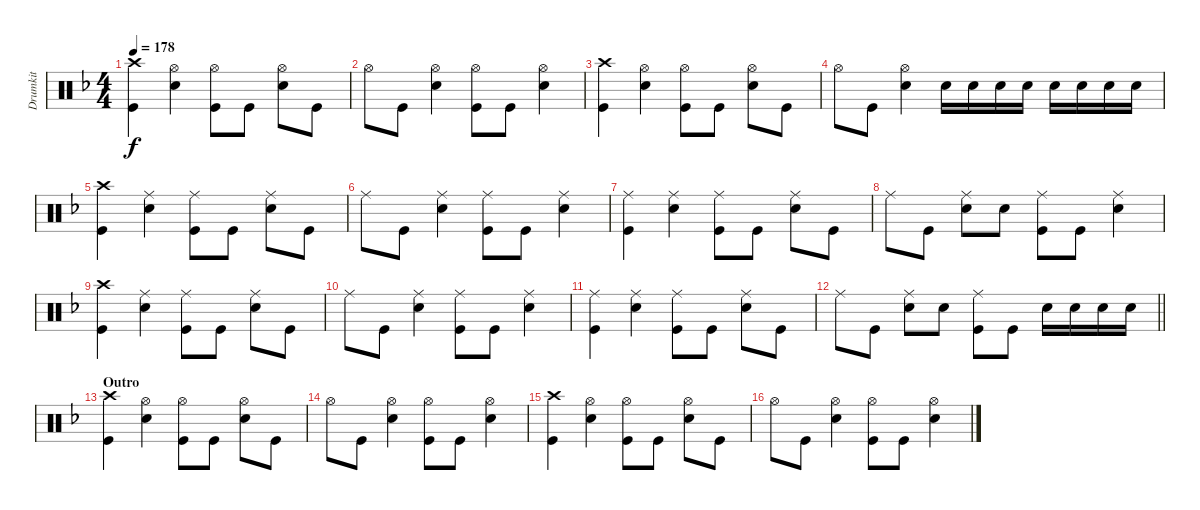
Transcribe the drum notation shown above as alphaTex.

\track ("Drumkit" "Drumkit") {instrument percussion}
\staff {score}
\articulation defaults
\ts (4 4)
\tempo 178
\clef neutral
\ks f
("Crash high (hit)" "Kick (hit)").4{dy f} ("Hi-Hat (open)" "Snare (hit) 2").4 ("Hi-Hat (open)" "Kick (hit)").8 "Kick (hit)".8 ("Hi-Hat (open)" "Snare (hit) 2").8 "Kick (hit)".8 |
"Hi-Hat (open)".8 "Kick (hit)".8 ("Hi-Hat (open)" "Snare (hit) 2").4 ("Hi-Hat (open)" "Kick (hit)").8 "Kick (hit)".8 ("Hi-Hat (open)" "Snare (hit) 2").4 |
("Crash high (hit)" "Kick (hit)").4 ("Hi-Hat (open)" "Snare (hit) 2").4 ("Hi-Hat (open)" "Kick (hit)").8 "Kick (hit)".8 ("Hi-Hat (open)" "Snare (hit) 2").8 "Kick (hit)".8 |
"Hi-Hat (open)".8 "Kick (hit)".8 ("Hi-Hat (open)" "Snare (hit) 2").4 "Snare (hit) 2".16 "Snare (hit) 2".16 "Snare (hit) 2".16 "Snare (hit) 2".16 "Snare (hit) 2".16 "Snare (hit) 2".16 "Snare (hit) 2".16 "Snare (hit) 2".16 |
("Crash high (hit)" "Kick (hit)").4 ("Ride (middle)" "Snare (hit) 2").4 ("Ride (middle)" "Kick (hit)").8 "Kick (hit)".8 ("Ride (middle)" "Snare (hit) 2").8 "Kick (hit)".8 |
"Ride (middle)".8 "Kick (hit)".8 ("Ride (middle)" "Snare (hit) 2").4 ("Ride (middle)" "Kick (hit)").8 "Kick (hit)".8 ("Ride (middle)" "Snare (hit) 2").4 |
("Ride (middle)" "Kick (hit)").4 ("Ride (middle)" "Snare (hit) 2").4 ("Ride (middle)" "Kick (hit)").8 "Kick (hit)".8 ("Ride (middle)" "Snare (hit) 2").8 "Kick (hit)".8 |
"Ride (middle)".8 "Kick (hit)".8 ("Ride (middle)" "Snare (hit) 2").8 "Snare (hit) 2".8 ("Ride (middle)" "Kick (hit)").8 "Kick (hit)".8 ("Ride (middle)" "Snare (hit) 2").4 |
("Crash high (hit)" "Kick (hit)").4 ("Ride (middle)" "Snare (hit) 2").4 ("Ride (middle)" "Kick (hit)").8 "Kick (hit)".8 ("Ride (middle)" "Snare (hit) 2").8 "Kick (hit)".8 |
"Ride (middle)".8 "Kick (hit)".8 ("Ride (middle)" "Snare (hit) 2").4 ("Ride (middle)" "Kick (hit)").8 "Kick (hit)".8 ("Ride (middle)" "Snare (hit) 2").4 |
("Ride (middle)" "Kick (hit)").4 ("Ride (middle)" "Snare (hit) 2").4 ("Ride (middle)" "Kick (hit)").8 "Kick (hit)".8 ("Ride (middle)" "Snare (hit) 2").8 "Kick (hit)".8 |
\barLineRight lightlight "Ride (middle)".8 "Kick (hit)".8
("Ride (middle)" "Snare (hit) 2").8 "Snare (hit) 2".8 ("Ride (middle)" "Kick (hit)").8 "Kick (hit)".8 "Snare (hit) 2".16 "Snare (hit) 2".16 "Snare (hit) 2".16 "Snare (hit) 2".16 |
\section ("" "Outro")
("Crash high (hit)" "Kick (hit)").4 ("Hi-Hat (open)" "Snare (hit) 2").4 ("Hi-Hat (open)" "Kick (hit)").8 "Kick (hit)".8 ("Hi-Hat (open)" "Snare (hit) 2").8 "Kick (hit)".8 |
"Hi-Hat (open)".8 "Kick (hit)".8 ("Hi-Hat (open)" "Snare (hit) 2").4 ("Hi-Hat (open)" "Kick (hit)").8 "Kick (hit)".8 ("Hi-Hat (open)" "Snare (hit) 2").4 |
("Crash high (hit)" "Kick (hit)").4 ("Hi-Hat (open)" "Snare (hit) 2").4 ("Hi-Hat (open)" "Kick (hit)").8 "Kick (hit)".8 ("Hi-Hat (open)" "Snare (hit) 2").8 "Kick (hit)".8 |
"Hi-Hat (open)".8 "Kick (hit)".8 ("Hi-Hat (open)" "Snare (hit) 2").4 ("Hi-Hat (open)" "Kick (hit)").8 "Kick (hit)".8 ("Hi-Hat (open)" "Snare (hit) 2").4
